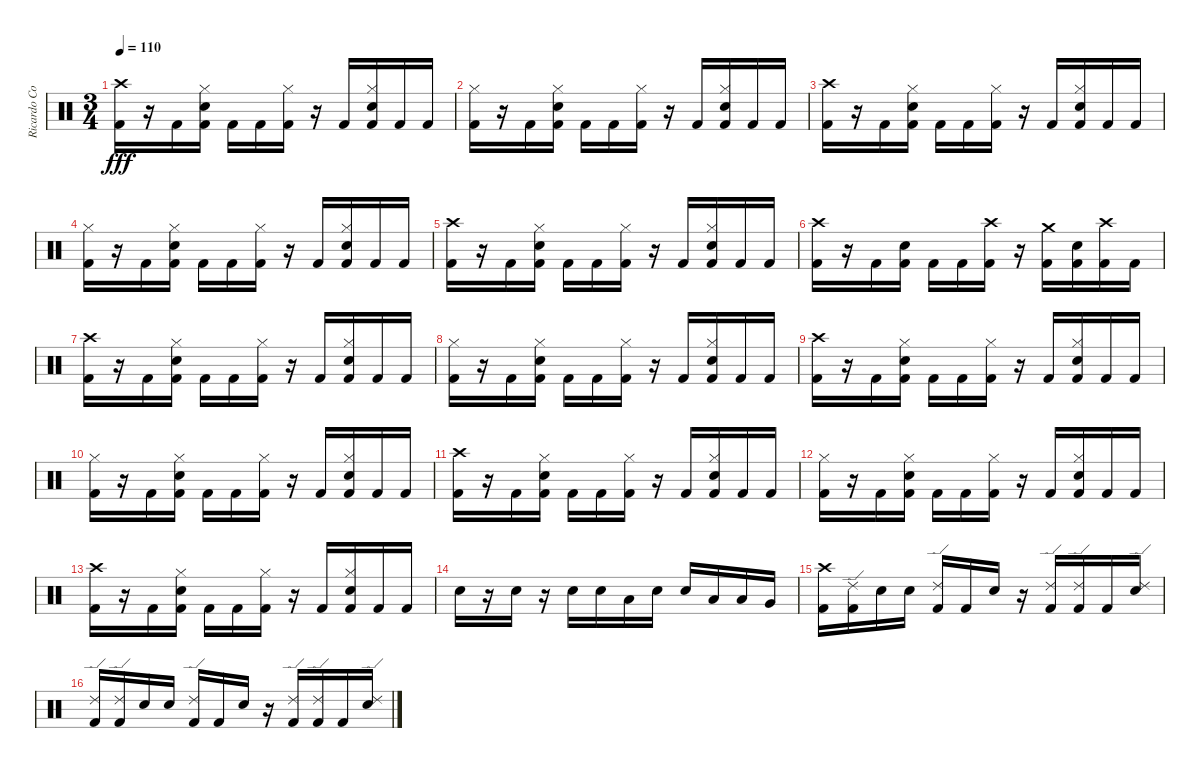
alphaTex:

\track ("Ricardo Confessori" "Ricardo Co") {instrument percussion}
\staff {score}
\articulation defaults
\ts (3 4)
\tempo 110
\clef neutral
\ks c
("Crash high (hit)" "Kick (hit) 2").16{dy fff} r.16 "Kick (hit) 2".16 ("Hi-Hat (closed)" "Electric Snare (hit)" "Kick (hit) 2").16 "Kick (hit) 2".16 "Kick (hit) 2".16 ("Hi-Hat (closed)" "Kick (hit) 2").16 r.16 "Kick (hit) 2".16 ("Hi-Hat (closed)" "Electric Snare (hit)" "Kick (hit) 2").16 "Kick (hit) 2".16 "Kick (hit) 2".16 |
("Hi-Hat (closed)" "Kick (hit) 2").16 r.16 "Kick (hit) 2".16 ("Hi-Hat (closed)" "Electric Snare (hit)" "Kick (hit) 2").16 "Kick (hit) 2".16 "Kick (hit) 2".16 ("Hi-Hat (closed)" "Kick (hit) 2").16 r.16 "Kick (hit) 2".16 ("Hi-Hat (closed)" "Electric Snare (hit)" "Kick (hit) 2").16 "Kick (hit) 2".16 "Kick (hit) 2".16 |
("Crash high (hit)" "Kick (hit) 2").16 r.16 "Kick (hit) 2".16 ("Hi-Hat (closed)" "Electric Snare (hit)" "Kick (hit) 2").16 "Kick (hit) 2".16 "Kick (hit) 2".16 ("Hi-Hat (closed)" "Kick (hit) 2").16 r.16 "Kick (hit) 2".16 ("Hi-Hat (closed)" "Electric Snare (hit)" "Kick (hit) 2").16 "Kick (hit) 2".16 "Kick (hit) 2".16 |
("Hi-Hat (closed)" "Kick (hit) 2").16 r.16 "Kick (hit) 2".16 ("Hi-Hat (closed)" "Electric Snare (hit)" "Kick (hit) 2").16 "Kick (hit) 2".16 "Kick (hit) 2".16 ("Hi-Hat (closed)" "Kick (hit) 2").16 r.16 "Kick (hit) 2".16 ("Hi-Hat (closed)" "Electric Snare (hit)" "Kick (hit) 2").16 "Kick (hit) 2".16 "Kick (hit) 2".16 |
("Crash high (hit)" "Kick (hit) 2").16 r.16 "Kick (hit) 2".16 ("Hi-Hat (closed)" "Electric Snare (hit)" "Kick (hit) 2").16 "Kick (hit) 2".16 "Kick (hit) 2".16 ("Hi-Hat (closed)" "Kick (hit) 2").16 r.16 "Kick (hit) 2".16 ("Hi-Hat (closed)" "Electric Snare (hit)" "Kick (hit) 2").16 "Kick (hit) 2".16 "Kick (hit) 2".16 |
("Crash high (hit)" "Kick (hit) 2").16 r.16 "Kick (hit) 2".16 ("Electric Snare (hit)" "Kick (hit) 2").16 "Kick (hit) 2".16 "Kick (hit) 2".16 ("Crash high (hit)" "Kick (hit) 2").16 r.16 ("Crash medium (hit)" "Kick (hit) 2").16 ("Electric Snare (hit)" "Kick (hit) 2").16 ("Crash high (hit)" "Kick (hit) 2").16 "Kick (hit) 2".16 |
("Crash high (hit)" "Kick (hit) 2").16 r.16 "Kick (hit) 2".16 ("Hi-Hat (closed)" "Electric Snare (hit)" "Kick (hit) 2").16 "Kick (hit) 2".16 "Kick (hit) 2".16 ("Hi-Hat (closed)" "Kick (hit) 2").16 r.16 "Kick (hit) 2".16 ("Hi-Hat (closed)" "Electric Snare (hit)" "Kick (hit) 2").16 "Kick (hit) 2".16 "Kick (hit) 2".16 |
("Hi-Hat (closed)" "Kick (hit) 2").16 r.16 "Kick (hit) 2".16 ("Hi-Hat (closed)" "Electric Snare (hit)" "Kick (hit) 2").16 "Kick (hit) 2".16 "Kick (hit) 2".16 ("Hi-Hat (closed)" "Kick (hit) 2").16 r.16 "Kick (hit) 2".16 ("Hi-Hat (closed)" "Electric Snare (hit)" "Kick (hit) 2").16 "Kick (hit) 2".16 "Kick (hit) 2".16 |
("Crash high (hit)" "Kick (hit) 2").16 r.16 "Kick (hit) 2".16 ("Hi-Hat (closed)" "Electric Snare (hit)" "Kick (hit) 2").16 "Kick (hit) 2".16 "Kick (hit) 2".16 ("Hi-Hat (closed)" "Kick (hit) 2").16 r.16 "Kick (hit) 2".16 ("Hi-Hat (closed)" "Electric Snare (hit)" "Kick (hit) 2").16 "Kick (hit) 2".16 "Kick (hit) 2".16 |
("Hi-Hat (closed)" "Kick (hit) 2").16 r.16 "Kick (hit) 2".16 ("Hi-Hat (closed)" "Electric Snare (hit)" "Kick (hit) 2").16 "Kick (hit) 2".16 "Kick (hit) 2".16 ("Hi-Hat (closed)" "Kick (hit) 2").16 r.16 "Kick (hit) 2".16 ("Hi-Hat (closed)" "Electric Snare (hit)" "Kick (hit) 2").16 "Kick (hit) 2".16 "Kick (hit) 2".16 |
("Crash high (hit)" "Kick (hit) 2").16 r.16 "Kick (hit) 2".16 ("Hi-Hat (closed)" "Electric Snare (hit)" "Kick (hit) 2").16 "Kick (hit) 2".16 "Kick (hit) 2".16 ("Hi-Hat (closed)" "Kick (hit) 2").16 r.16 "Kick (hit) 2".16 ("Hi-Hat (closed)" "Electric Snare (hit)" "Kick (hit) 2").16 "Kick (hit) 2".16 "Kick (hit) 2".16 |
("Hi-Hat (closed)" "Kick (hit) 2").16 r.16 "Kick (hit) 2".16 ("Hi-Hat (closed)" "Electric Snare (hit)" "Kick (hit) 2").16 "Kick (hit) 2".16 "Kick (hit) 2".16 ("Hi-Hat (closed)" "Kick (hit) 2").16 r.16 "Kick (hit) 2".16 ("Hi-Hat (closed)" "Electric Snare (hit)" "Kick (hit) 2").16 "Kick (hit) 2".16 "Kick (hit) 2".16 |
("Crash high (hit)" "Kick (hit) 2").16 r.16 "Kick (hit) 2".16 ("Hi-Hat (closed)" "Electric Snare (hit)" "Kick (hit) 2").16 "Kick (hit) 2".16 "Kick (hit) 2".16 ("Hi-Hat (closed)" "Kick (hit) 2").16 r.16 "Kick (hit) 2".16 ("Hi-Hat (closed)" "Electric Snare (hit)" "Kick (hit) 2").16 "Kick (hit) 2".16 "Kick (hit) 2".16 |
"Electric Snare (hit)".16 r.16 "Electric Snare (hit)".16 r.16 "Electric Snare (hit)".16 "Electric Snare (hit)".16 "Low Tom (hit)".16 "Electric Snare (hit)".16 "Electric Snare (hit)".16 "Low Tom (hit)".16 "Low Tom (hit)".16 "Very Low Tom (hit)".16 |
("Crash high (hit)" "Kick (hit) 2").16 ("Ride (edge) 2" "Kick (hit) 2").16 "Electric Snare (hit)".16 "Electric Snare (hit)".16 ("Ride (edge) 2" "Kick (hit) 2").16 "Kick (hit) 2".16 "Electric Snare (hit)".16 r.16 ("Ride (edge) 2" "Kick (hit) 2").16 ("Ride (edge) 2" "Kick (hit) 2").16 "Kick (hit) 2".16 ("Ride (edge) 2" "Electric Snare (hit)").16 |
("Ride (edge) 2" "Kick (hit) 2").16 ("Ride (edge) 2" "Kick (hit) 2").16 "Electric Snare (hit)".16 "Electric Snare (hit)".16 ("Ride (edge) 2" "Kick (hit) 2").16 "Kick (hit) 2".16 "Electric Snare (hit)".16 r.16 ("Ride (edge) 2" "Kick (hit) 2").16 ("Ride (edge) 2" "Kick (hit) 2").16 "Kick (hit) 2".16 ("Ride (edge) 2" "Electric Snare (hit)").16
